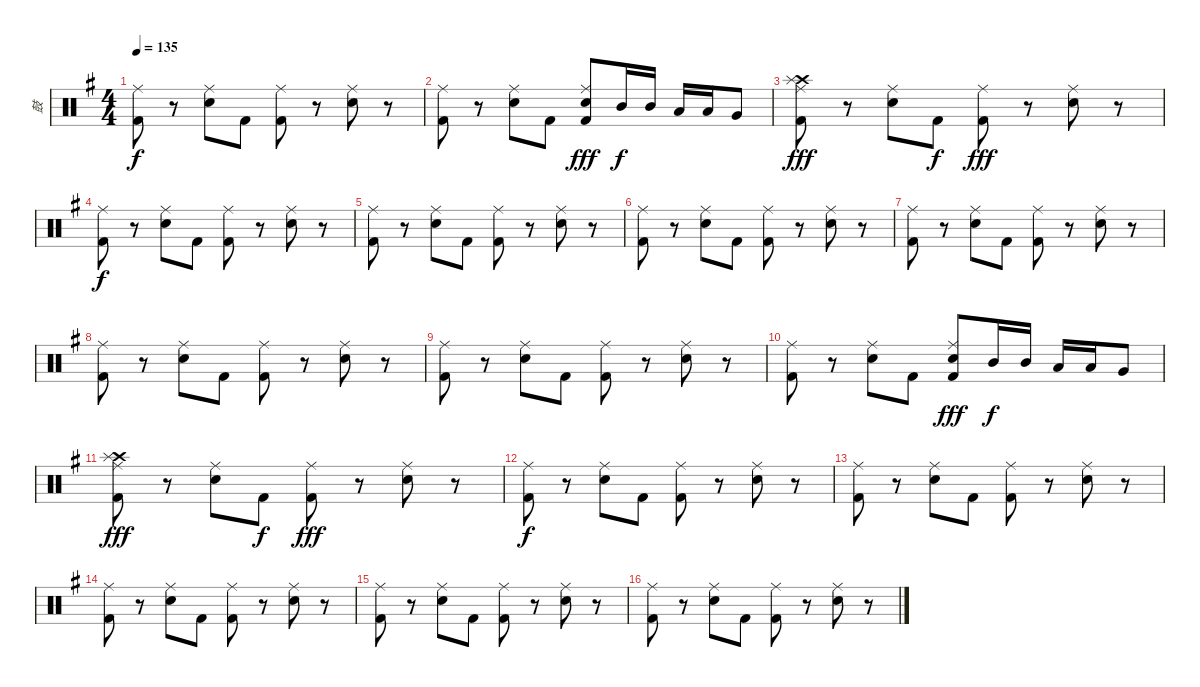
\track ("鼓" "鼓") {instrument percussion}
\staff {score}
\articulation defaults
\ts (4 4)
\tempo 135
\clef neutral
\ks g
("Kick (hit) 2" "Ride (middle)").8{dy f} r.8 ("Snare (hit) 2" "Ride (middle)").8 "Kick (hit) 2".8 ("Kick (hit) 2" "Ride (middle)").8 r.8 ("Snare (hit) 2" "Ride (middle)").8 r.8 |
("Kick (hit) 2" "Ride (middle)").8 r.8 ("Snare (hit) 2" "Ride (middle)").8 "Kick (hit) 2".8 ("Kick (hit) 2" "Snare (hit) 2" "Ride (middle)").8{dy fff} "Mid Tom (hit)".16{dy f} "Mid Tom (hit)".16 "Low Tom (hit)".16 "Low Tom (hit)".16 "Very Low Tom (hit)".8 |
("Crash high (hit)" "Splash (hit)" "Kick (hit) 2" "Ride (middle)").8{dy fff} r.8 ("Snare (hit) 2" "Ride (middle)").8 "Kick (hit) 2".8{dy f} ("Kick (hit) 2" "Ride (middle)").8{dy fff} r.8 ("Snare (hit) 2" "Ride (middle)").8 r.8 |
("Kick (hit) 2" "Ride (middle)").8{dy f} r.8 ("Snare (hit) 2" "Ride (middle)").8 "Kick (hit) 2".8 ("Kick (hit) 2" "Ride (middle)").8 r.8 ("Snare (hit) 2" "Ride (middle)").8 r.8 |
("Kick (hit) 2" "Ride (middle)").8 r.8 ("Snare (hit) 2" "Ride (middle)").8 "Kick (hit) 2".8 ("Kick (hit) 2" "Ride (middle)").8 r.8 ("Snare (hit) 2" "Ride (middle)").8 r.8 |
("Kick (hit) 2" "Ride (middle)").8 r.8 ("Snare (hit) 2" "Ride (middle)").8 "Kick (hit) 2".8 ("Kick (hit) 2" "Ride (middle)").8 r.8 ("Snare (hit) 2" "Ride (middle)").8 r.8 |
("Kick (hit) 2" "Ride (middle)").8 r.8 ("Snare (hit) 2" "Ride (middle)").8 "Kick (hit) 2".8 ("Kick (hit) 2" "Ride (middle)").8 r.8 ("Snare (hit) 2" "Ride (middle)").8 r.8 |
("Kick (hit) 2" "Ride (middle)").8 r.8 ("Snare (hit) 2" "Ride (middle)").8 "Kick (hit) 2".8 ("Kick (hit) 2" "Ride (middle)").8 r.8 ("Snare (hit) 2" "Ride (middle)").8 r.8 |
("Kick (hit) 2" "Ride (middle)").8 r.8 ("Snare (hit) 2" "Ride (middle)").8 "Kick (hit) 2".8 ("Kick (hit) 2" "Ride (middle)").8 r.8 ("Snare (hit) 2" "Ride (middle)").8 r.8 |
("Kick (hit) 2" "Ride (middle)").8 r.8 ("Snare (hit) 2" "Ride (middle)").8 "Kick (hit) 2".8 ("Kick (hit) 2" "Snare (hit) 2" "Ride (middle)").8{dy fff} "Mid Tom (hit)".16{dy f} "Mid Tom (hit)".16 "Low Tom (hit)".16 "Low Tom (hit)".16 "Very Low Tom (hit)".8 |
("Crash high (hit)" "Splash (hit)" "Kick (hit) 2" "Ride (middle)").8{dy fff} r.8 ("Snare (hit) 2" "Ride (middle)").8 "Kick (hit) 2".8{dy f} ("Kick (hit) 2" "Ride (middle)").8{dy fff} r.8 ("Snare (hit) 2" "Ride (middle)").8 r.8 |
("Kick (hit) 2" "Ride (middle)").8{dy f} r.8 ("Snare (hit) 2" "Ride (middle)").8 "Kick (hit) 2".8 ("Kick (hit) 2" "Ride (middle)").8 r.8 ("Snare (hit) 2" "Ride (middle)").8 r.8 |
("Kick (hit) 2" "Ride (middle)").8 r.8 ("Snare (hit) 2" "Ride (middle)").8 "Kick (hit) 2".8 ("Kick (hit) 2" "Ride (middle)").8 r.8 ("Snare (hit) 2" "Ride (middle)").8 r.8 |
("Kick (hit) 2" "Ride (middle)").8 r.8 ("Snare (hit) 2" "Ride (middle)").8 "Kick (hit) 2".8 ("Kick (hit) 2" "Ride (middle)").8 r.8 ("Snare (hit) 2" "Ride (middle)").8 r.8 |
("Kick (hit) 2" "Ride (middle)").8 r.8 ("Snare (hit) 2" "Ride (middle)").8 "Kick (hit) 2".8 ("Kick (hit) 2" "Ride (middle)").8 r.8 ("Snare (hit) 2" "Ride (middle)").8 r.8 |
("Kick (hit) 2" "Ride (middle)").8 r.8 ("Snare (hit) 2" "Ride (middle)").8 "Kick (hit) 2".8 ("Kick (hit) 2" "Ride (middle)").8 r.8 ("Snare (hit) 2" "Ride (middle)").8 r.8
